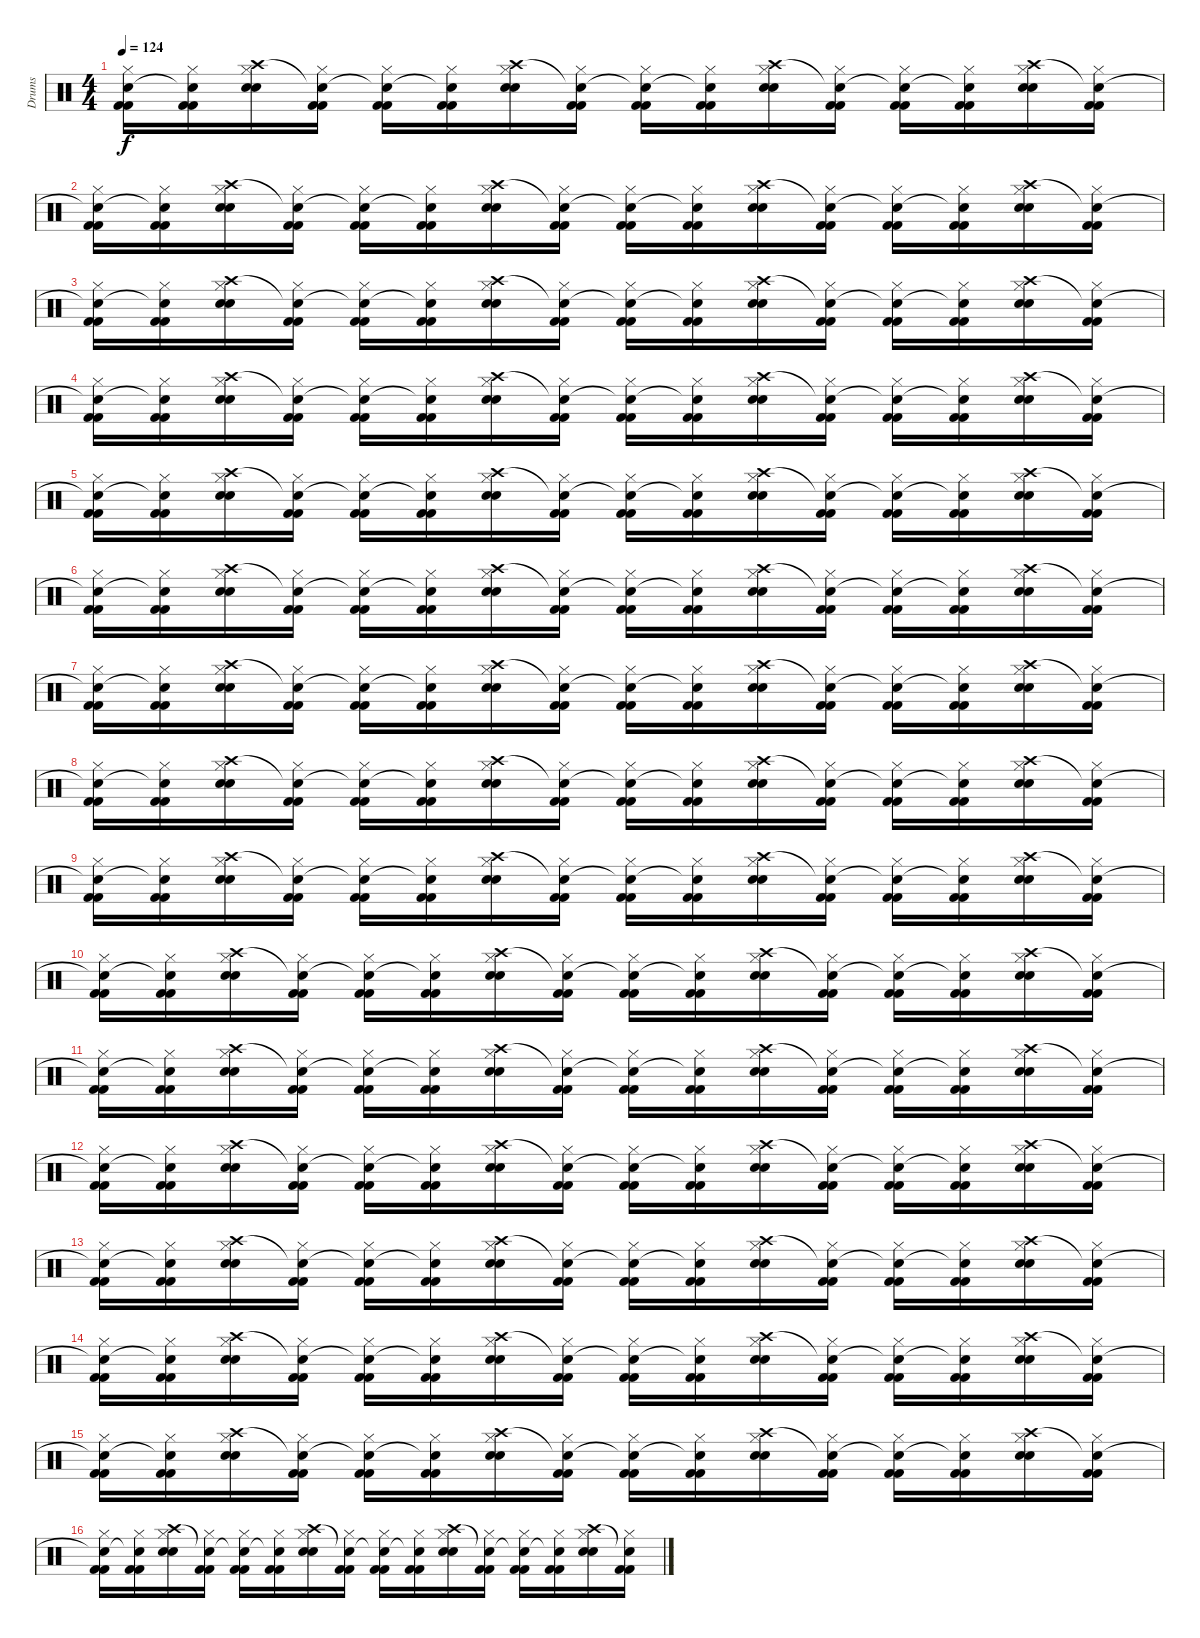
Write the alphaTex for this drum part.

\track ("Drums" "Drums") {instrument percussion}
\staff {score}
\articulation defaults
\ts (4 4)
\tempo 124
\clef neutral
\ks c
("Snare (hit)"{t} "Hi-Hat (closed)" "Kick (hit) 2" "Kick (hit) 2").16{dy f} ("Snare (hit)"{t} "Hi-Hat (closed)" "Kick (hit) 2" "Kick (hit) 2").16 ("Crash high (hit)" "Hi-Hat (closed)" "Snare (hit) 2" "Snare (hit) 2").16 ("Snare (hit)"{t} "Hi-Hat (closed)" "Kick (hit) 2" "Kick (hit) 2").16 ("Snare (hit)"{t} "Hi-Hat (closed)" "Kick (hit) 2" "Kick (hit) 2").16 ("Snare (hit)"{t} "Hi-Hat (closed)" "Kick (hit) 2" "Kick (hit) 2").16 ("Crash high (hit)" "Hi-Hat (closed)" "Snare (hit) 2" "Snare (hit) 2").16 ("Snare (hit)"{t} "Hi-Hat (closed)" "Kick (hit) 2" "Kick (hit) 2").16 ("Snare (hit)"{t} "Hi-Hat (closed)" "Kick (hit) 2" "Kick (hit) 2").16 ("Snare (hit)"{t} "Hi-Hat (closed)" "Kick (hit) 2" "Kick (hit) 2").16 ("Crash high (hit)" "Hi-Hat (closed)" "Snare (hit) 2" "Snare (hit) 2").16 ("Snare (hit)"{t} "Hi-Hat (closed)" "Kick (hit) 2" "Kick (hit) 2").16 ("Snare (hit)"{t} "Hi-Hat (closed)" "Kick (hit) 2" "Kick (hit) 2").16 ("Snare (hit)"{t} "Hi-Hat (closed)" "Kick (hit) 2" "Kick (hit) 2").16 ("Crash high (hit)" "Hi-Hat (closed)" "Snare (hit) 2" "Snare (hit) 2").16 ("Snare (hit)"{t} "Hi-Hat (closed)" "Kick (hit) 2" "Kick (hit) 2").16 |
("Snare (hit)"{t} "Hi-Hat (closed)" "Kick (hit) 2" "Kick (hit) 2").16 ("Snare (hit)"{t} "Hi-Hat (closed)" "Kick (hit) 2" "Kick (hit) 2").16 ("Crash high (hit)" "Hi-Hat (closed)" "Snare (hit) 2" "Snare (hit) 2").16 ("Snare (hit)"{t} "Hi-Hat (closed)" "Kick (hit) 2" "Kick (hit) 2").16 ("Snare (hit)"{t} "Hi-Hat (closed)" "Kick (hit) 2" "Kick (hit) 2").16 ("Snare (hit)"{t} "Hi-Hat (closed)" "Kick (hit) 2" "Kick (hit) 2").16 ("Crash high (hit)" "Hi-Hat (closed)" "Snare (hit) 2" "Snare (hit) 2").16 ("Snare (hit)"{t} "Hi-Hat (closed)" "Kick (hit) 2" "Kick (hit) 2").16 ("Snare (hit)"{t} "Hi-Hat (closed)" "Kick (hit) 2" "Kick (hit) 2").16 ("Snare (hit)"{t} "Hi-Hat (closed)" "Kick (hit) 2" "Kick (hit) 2").16 ("Crash high (hit)" "Hi-Hat (closed)" "Snare (hit) 2" "Snare (hit) 2").16 ("Snare (hit)"{t} "Hi-Hat (closed)" "Kick (hit) 2" "Kick (hit) 2").16 ("Snare (hit)"{t} "Hi-Hat (closed)" "Kick (hit) 2" "Kick (hit) 2").16 ("Snare (hit)"{t} "Hi-Hat (closed)" "Kick (hit) 2" "Kick (hit) 2").16 ("Crash high (hit)" "Hi-Hat (closed)" "Snare (hit) 2" "Snare (hit) 2").16 ("Snare (hit)"{t} "Hi-Hat (closed)" "Kick (hit) 2" "Kick (hit) 2").16 |
("Snare (hit)"{t} "Hi-Hat (closed)" "Kick (hit) 2" "Kick (hit) 2").16 ("Snare (hit)"{t} "Hi-Hat (closed)" "Kick (hit) 2" "Kick (hit) 2").16 ("Crash high (hit)" "Hi-Hat (closed)" "Snare (hit) 2" "Snare (hit) 2").16 ("Snare (hit)"{t} "Hi-Hat (closed)" "Kick (hit) 2" "Kick (hit) 2").16 ("Snare (hit)"{t} "Hi-Hat (closed)" "Kick (hit) 2" "Kick (hit) 2").16 ("Snare (hit)"{t} "Hi-Hat (closed)" "Kick (hit) 2" "Kick (hit) 2").16 ("Crash high (hit)" "Hi-Hat (closed)" "Snare (hit) 2" "Snare (hit) 2").16 ("Snare (hit)"{t} "Hi-Hat (closed)" "Kick (hit) 2" "Kick (hit) 2").16 ("Snare (hit)"{t} "Hi-Hat (closed)" "Kick (hit) 2" "Kick (hit) 2").16 ("Snare (hit)"{t} "Hi-Hat (closed)" "Kick (hit) 2" "Kick (hit) 2").16 ("Crash high (hit)" "Hi-Hat (closed)" "Snare (hit) 2" "Snare (hit) 2").16 ("Snare (hit)"{t} "Hi-Hat (closed)" "Kick (hit) 2" "Kick (hit) 2").16 ("Snare (hit)"{t} "Hi-Hat (closed)" "Kick (hit) 2" "Kick (hit) 2").16 ("Snare (hit)"{t} "Hi-Hat (closed)" "Kick (hit) 2" "Kick (hit) 2").16 ("Crash high (hit)" "Hi-Hat (closed)" "Snare (hit) 2" "Snare (hit) 2").16 ("Snare (hit)"{t} "Hi-Hat (closed)" "Kick (hit) 2" "Kick (hit) 2").16 |
("Snare (hit)"{t} "Hi-Hat (closed)" "Kick (hit) 2" "Kick (hit) 2").16 ("Snare (hit)"{t} "Hi-Hat (closed)" "Kick (hit) 2" "Kick (hit) 2").16 ("Crash high (hit)" "Hi-Hat (closed)" "Snare (hit) 2" "Snare (hit) 2").16 ("Snare (hit)"{t} "Hi-Hat (closed)" "Kick (hit) 2" "Kick (hit) 2").16 ("Snare (hit)"{t} "Hi-Hat (closed)" "Kick (hit) 2" "Kick (hit) 2").16 ("Snare (hit)"{t} "Hi-Hat (closed)" "Kick (hit) 2" "Kick (hit) 2").16 ("Crash high (hit)" "Hi-Hat (closed)" "Snare (hit) 2" "Snare (hit) 2").16 ("Snare (hit)"{t} "Hi-Hat (closed)" "Kick (hit) 2" "Kick (hit) 2").16 ("Snare (hit)"{t} "Hi-Hat (closed)" "Kick (hit) 2" "Kick (hit) 2").16 ("Snare (hit)"{t} "Hi-Hat (closed)" "Kick (hit) 2" "Kick (hit) 2").16 ("Crash high (hit)" "Hi-Hat (closed)" "Snare (hit) 2" "Snare (hit) 2").16 ("Snare (hit)"{t} "Hi-Hat (closed)" "Kick (hit) 2" "Kick (hit) 2").16 ("Snare (hit)"{t} "Hi-Hat (closed)" "Kick (hit) 2" "Kick (hit) 2").16 ("Snare (hit)"{t} "Hi-Hat (closed)" "Kick (hit) 2" "Kick (hit) 2").16 ("Crash high (hit)" "Hi-Hat (closed)" "Snare (hit) 2" "Snare (hit) 2").16 ("Snare (hit)"{t} "Hi-Hat (closed)" "Kick (hit) 2" "Kick (hit) 2").16 |
("Snare (hit)"{t} "Hi-Hat (closed)" "Kick (hit) 2" "Kick (hit) 2").16 ("Snare (hit)"{t} "Hi-Hat (closed)" "Kick (hit) 2" "Kick (hit) 2").16 ("Crash high (hit)" "Hi-Hat (closed)" "Snare (hit) 2" "Snare (hit) 2").16 ("Snare (hit)"{t} "Hi-Hat (closed)" "Kick (hit) 2" "Kick (hit) 2").16 ("Snare (hit)"{t} "Hi-Hat (closed)" "Kick (hit) 2" "Kick (hit) 2").16 ("Snare (hit)"{t} "Hi-Hat (closed)" "Kick (hit) 2" "Kick (hit) 2").16 ("Crash high (hit)" "Hi-Hat (closed)" "Snare (hit) 2" "Snare (hit) 2").16 ("Snare (hit)"{t} "Hi-Hat (closed)" "Kick (hit) 2" "Kick (hit) 2").16 ("Snare (hit)"{t} "Hi-Hat (closed)" "Kick (hit) 2" "Kick (hit) 2").16 ("Snare (hit)"{t} "Hi-Hat (closed)" "Kick (hit) 2" "Kick (hit) 2").16 ("Crash high (hit)" "Hi-Hat (closed)" "Snare (hit) 2" "Snare (hit) 2").16 ("Snare (hit)"{t} "Hi-Hat (closed)" "Kick (hit) 2" "Kick (hit) 2").16 ("Snare (hit)"{t} "Hi-Hat (closed)" "Kick (hit) 2" "Kick (hit) 2").16 ("Snare (hit)"{t} "Hi-Hat (closed)" "Kick (hit) 2" "Kick (hit) 2").16 ("Crash high (hit)" "Hi-Hat (closed)" "Snare (hit) 2" "Snare (hit) 2").16 ("Snare (hit)"{t} "Hi-Hat (closed)" "Kick (hit) 2" "Kick (hit) 2").16 |
("Snare (hit)"{t} "Hi-Hat (closed)" "Kick (hit) 2" "Kick (hit) 2").16 ("Snare (hit)"{t} "Hi-Hat (closed)" "Kick (hit) 2" "Kick (hit) 2").16 ("Crash high (hit)" "Hi-Hat (closed)" "Snare (hit) 2" "Snare (hit) 2").16 ("Snare (hit)"{t} "Hi-Hat (closed)" "Kick (hit) 2" "Kick (hit) 2").16 ("Snare (hit)"{t} "Hi-Hat (closed)" "Kick (hit) 2" "Kick (hit) 2").16 ("Snare (hit)"{t} "Hi-Hat (closed)" "Kick (hit) 2" "Kick (hit) 2").16 ("Crash high (hit)" "Hi-Hat (closed)" "Snare (hit) 2" "Snare (hit) 2").16 ("Snare (hit)"{t} "Hi-Hat (closed)" "Kick (hit) 2" "Kick (hit) 2").16 ("Snare (hit)"{t} "Hi-Hat (closed)" "Kick (hit) 2" "Kick (hit) 2").16 ("Snare (hit)"{t} "Hi-Hat (closed)" "Kick (hit) 2" "Kick (hit) 2").16 ("Crash high (hit)" "Hi-Hat (closed)" "Snare (hit) 2" "Snare (hit) 2").16 ("Snare (hit)"{t} "Hi-Hat (closed)" "Kick (hit) 2" "Kick (hit) 2").16 ("Snare (hit)"{t} "Hi-Hat (closed)" "Kick (hit) 2" "Kick (hit) 2").16 ("Snare (hit)"{t} "Hi-Hat (closed)" "Kick (hit) 2" "Kick (hit) 2").16 ("Crash high (hit)" "Hi-Hat (closed)" "Snare (hit) 2" "Snare (hit) 2").16 ("Snare (hit)"{t} "Hi-Hat (closed)" "Kick (hit) 2" "Kick (hit) 2").16 |
("Snare (hit)"{t} "Hi-Hat (closed)" "Kick (hit) 2" "Kick (hit) 2").16 ("Snare (hit)"{t} "Hi-Hat (closed)" "Kick (hit) 2" "Kick (hit) 2").16 ("Crash high (hit)" "Hi-Hat (closed)" "Snare (hit) 2" "Snare (hit) 2").16 ("Snare (hit)"{t} "Hi-Hat (closed)" "Kick (hit) 2" "Kick (hit) 2").16 ("Snare (hit)"{t} "Hi-Hat (closed)" "Kick (hit) 2" "Kick (hit) 2").16 ("Snare (hit)"{t} "Hi-Hat (closed)" "Kick (hit) 2" "Kick (hit) 2").16 ("Crash high (hit)" "Hi-Hat (closed)" "Snare (hit) 2" "Snare (hit) 2").16 ("Snare (hit)"{t} "Hi-Hat (closed)" "Kick (hit) 2" "Kick (hit) 2").16 ("Snare (hit)"{t} "Hi-Hat (closed)" "Kick (hit) 2" "Kick (hit) 2").16 ("Snare (hit)"{t} "Hi-Hat (closed)" "Kick (hit) 2" "Kick (hit) 2").16 ("Crash high (hit)" "Hi-Hat (closed)" "Snare (hit) 2" "Snare (hit) 2").16 ("Snare (hit)"{t} "Hi-Hat (closed)" "Kick (hit) 2" "Kick (hit) 2").16 ("Snare (hit)"{t} "Hi-Hat (closed)" "Kick (hit) 2" "Kick (hit) 2").16 ("Snare (hit)"{t} "Hi-Hat (closed)" "Kick (hit) 2" "Kick (hit) 2").16 ("Crash high (hit)" "Hi-Hat (closed)" "Snare (hit) 2" "Snare (hit) 2").16 ("Snare (hit)"{t} "Hi-Hat (closed)" "Kick (hit) 2" "Kick (hit) 2").16 |
("Snare (hit)"{t} "Hi-Hat (closed)" "Kick (hit) 2" "Kick (hit) 2").16 ("Snare (hit)"{t} "Hi-Hat (closed)" "Kick (hit) 2" "Kick (hit) 2").16 ("Crash high (hit)" "Hi-Hat (closed)" "Snare (hit) 2" "Snare (hit) 2").16 ("Snare (hit)"{t} "Hi-Hat (closed)" "Kick (hit) 2" "Kick (hit) 2").16 ("Snare (hit)"{t} "Hi-Hat (closed)" "Kick (hit) 2" "Kick (hit) 2").16 ("Snare (hit)"{t} "Hi-Hat (closed)" "Kick (hit) 2" "Kick (hit) 2").16 ("Crash high (hit)" "Hi-Hat (closed)" "Snare (hit) 2" "Snare (hit) 2").16 ("Snare (hit)"{t} "Hi-Hat (closed)" "Kick (hit) 2" "Kick (hit) 2").16 ("Snare (hit)"{t} "Hi-Hat (closed)" "Kick (hit) 2" "Kick (hit) 2").16 ("Snare (hit)"{t} "Hi-Hat (closed)" "Kick (hit) 2" "Kick (hit) 2").16 ("Crash high (hit)" "Hi-Hat (closed)" "Snare (hit) 2" "Snare (hit) 2").16 ("Snare (hit)"{t} "Hi-Hat (closed)" "Kick (hit) 2" "Kick (hit) 2").16 ("Snare (hit)"{t} "Hi-Hat (closed)" "Kick (hit) 2" "Kick (hit) 2").16 ("Snare (hit)"{t} "Hi-Hat (closed)" "Kick (hit) 2" "Kick (hit) 2").16 ("Crash high (hit)" "Hi-Hat (closed)" "Snare (hit) 2" "Snare (hit) 2").16 ("Snare (hit)"{t} "Hi-Hat (closed)" "Kick (hit) 2" "Kick (hit) 2").16 |
("Snare (hit)"{t} "Hi-Hat (closed)" "Kick (hit) 2" "Kick (hit) 2").16 ("Snare (hit)"{t} "Hi-Hat (closed)" "Kick (hit) 2" "Kick (hit) 2").16 ("Crash high (hit)" "Hi-Hat (closed)" "Snare (hit) 2" "Snare (hit) 2").16 ("Snare (hit)"{t} "Hi-Hat (closed)" "Kick (hit) 2" "Kick (hit) 2").16 ("Snare (hit)"{t} "Hi-Hat (closed)" "Kick (hit) 2" "Kick (hit) 2").16 ("Snare (hit)"{t} "Hi-Hat (closed)" "Kick (hit) 2" "Kick (hit) 2").16 ("Crash high (hit)" "Hi-Hat (closed)" "Snare (hit) 2" "Snare (hit) 2").16 ("Snare (hit)"{t} "Hi-Hat (closed)" "Kick (hit) 2" "Kick (hit) 2").16 ("Snare (hit)"{t} "Hi-Hat (closed)" "Kick (hit) 2" "Kick (hit) 2").16 ("Snare (hit)"{t} "Hi-Hat (closed)" "Kick (hit) 2" "Kick (hit) 2").16 ("Crash high (hit)" "Hi-Hat (closed)" "Snare (hit) 2" "Snare (hit) 2").16 ("Snare (hit)"{t} "Hi-Hat (closed)" "Kick (hit) 2" "Kick (hit) 2").16 ("Snare (hit)"{t} "Hi-Hat (closed)" "Kick (hit) 2" "Kick (hit) 2").16 ("Snare (hit)"{t} "Hi-Hat (closed)" "Kick (hit) 2" "Kick (hit) 2").16 ("Crash high (hit)" "Hi-Hat (closed)" "Snare (hit) 2" "Snare (hit) 2").16 ("Snare (hit)"{t} "Hi-Hat (closed)" "Kick (hit) 2" "Kick (hit) 2").16 |
("Snare (hit)"{t} "Hi-Hat (closed)" "Kick (hit) 2" "Kick (hit) 2").16 ("Snare (hit)"{t} "Hi-Hat (closed)" "Kick (hit) 2" "Kick (hit) 2").16 ("Crash high (hit)" "Hi-Hat (closed)" "Snare (hit) 2" "Snare (hit) 2").16 ("Snare (hit)"{t} "Hi-Hat (closed)" "Kick (hit) 2" "Kick (hit) 2").16 ("Snare (hit)"{t} "Hi-Hat (closed)" "Kick (hit) 2" "Kick (hit) 2").16 ("Snare (hit)"{t} "Hi-Hat (closed)" "Kick (hit) 2" "Kick (hit) 2").16 ("Crash high (hit)" "Hi-Hat (closed)" "Snare (hit) 2" "Snare (hit) 2").16 ("Snare (hit)"{t} "Hi-Hat (closed)" "Kick (hit) 2" "Kick (hit) 2").16 ("Snare (hit)"{t} "Hi-Hat (closed)" "Kick (hit) 2" "Kick (hit) 2").16 ("Snare (hit)"{t} "Hi-Hat (closed)" "Kick (hit) 2" "Kick (hit) 2").16 ("Crash high (hit)" "Hi-Hat (closed)" "Snare (hit) 2" "Snare (hit) 2").16 ("Snare (hit)"{t} "Hi-Hat (closed)" "Kick (hit) 2" "Kick (hit) 2").16 ("Snare (hit)"{t} "Hi-Hat (closed)" "Kick (hit) 2" "Kick (hit) 2").16 ("Snare (hit)"{t} "Hi-Hat (closed)" "Kick (hit) 2" "Kick (hit) 2").16 ("Crash high (hit)" "Hi-Hat (closed)" "Snare (hit) 2" "Snare (hit) 2").16 ("Snare (hit)"{t} "Hi-Hat (closed)" "Kick (hit) 2" "Kick (hit) 2").16 |
("Snare (hit)"{t} "Hi-Hat (closed)" "Kick (hit) 2" "Kick (hit) 2").16 ("Snare (hit)"{t} "Hi-Hat (closed)" "Kick (hit) 2" "Kick (hit) 2").16 ("Crash high (hit)" "Hi-Hat (closed)" "Snare (hit) 2" "Snare (hit) 2").16 ("Snare (hit)"{t} "Hi-Hat (closed)" "Kick (hit) 2" "Kick (hit) 2").16 ("Snare (hit)"{t} "Hi-Hat (closed)" "Kick (hit) 2" "Kick (hit) 2").16 ("Snare (hit)"{t} "Hi-Hat (closed)" "Kick (hit) 2" "Kick (hit) 2").16 ("Crash high (hit)" "Hi-Hat (closed)" "Snare (hit) 2" "Snare (hit) 2").16 ("Snare (hit)"{t} "Hi-Hat (closed)" "Kick (hit) 2" "Kick (hit) 2").16 ("Snare (hit)"{t} "Hi-Hat (closed)" "Kick (hit) 2" "Kick (hit) 2").16 ("Snare (hit)"{t} "Hi-Hat (closed)" "Kick (hit) 2" "Kick (hit) 2").16 ("Crash high (hit)" "Hi-Hat (closed)" "Snare (hit) 2" "Snare (hit) 2").16 ("Snare (hit)"{t} "Hi-Hat (closed)" "Kick (hit) 2" "Kick (hit) 2").16 ("Snare (hit)"{t} "Hi-Hat (closed)" "Kick (hit) 2" "Kick (hit) 2").16 ("Snare (hit)"{t} "Hi-Hat (closed)" "Kick (hit) 2" "Kick (hit) 2").16 ("Crash high (hit)" "Hi-Hat (closed)" "Snare (hit) 2" "Snare (hit) 2").16 ("Snare (hit)"{t} "Hi-Hat (closed)" "Kick (hit) 2" "Kick (hit) 2").16 |
("Snare (hit)"{t} "Hi-Hat (closed)" "Kick (hit) 2" "Kick (hit) 2").16 ("Snare (hit)"{t} "Hi-Hat (closed)" "Kick (hit) 2" "Kick (hit) 2").16 ("Crash high (hit)" "Hi-Hat (closed)" "Snare (hit) 2" "Snare (hit) 2").16 ("Snare (hit)"{t} "Hi-Hat (closed)" "Kick (hit) 2" "Kick (hit) 2").16 ("Snare (hit)"{t} "Hi-Hat (closed)" "Kick (hit) 2" "Kick (hit) 2").16 ("Snare (hit)"{t} "Hi-Hat (closed)" "Kick (hit) 2" "Kick (hit) 2").16 ("Crash high (hit)" "Hi-Hat (closed)" "Snare (hit) 2" "Snare (hit) 2").16 ("Snare (hit)"{t} "Hi-Hat (closed)" "Kick (hit) 2" "Kick (hit) 2").16 ("Snare (hit)"{t} "Hi-Hat (closed)" "Kick (hit) 2" "Kick (hit) 2").16 ("Snare (hit)"{t} "Hi-Hat (closed)" "Kick (hit) 2" "Kick (hit) 2").16 ("Crash high (hit)" "Hi-Hat (closed)" "Snare (hit) 2" "Snare (hit) 2").16 ("Snare (hit)"{t} "Hi-Hat (closed)" "Kick (hit) 2" "Kick (hit) 2").16 ("Snare (hit)"{t} "Hi-Hat (closed)" "Kick (hit) 2" "Kick (hit) 2").16 ("Snare (hit)"{t} "Hi-Hat (closed)" "Kick (hit) 2" "Kick (hit) 2").16 ("Crash high (hit)" "Hi-Hat (closed)" "Snare (hit) 2" "Snare (hit) 2").16 ("Snare (hit)"{t} "Hi-Hat (closed)" "Kick (hit) 2" "Kick (hit) 2").16 |
("Snare (hit)"{t} "Hi-Hat (closed)" "Kick (hit) 2" "Kick (hit) 2").16 ("Snare (hit)"{t} "Hi-Hat (closed)" "Kick (hit) 2" "Kick (hit) 2").16 ("Crash high (hit)" "Hi-Hat (closed)" "Snare (hit) 2" "Snare (hit) 2").16 ("Snare (hit)"{t} "Hi-Hat (closed)" "Kick (hit) 2" "Kick (hit) 2").16 ("Snare (hit)"{t} "Hi-Hat (closed)" "Kick (hit) 2" "Kick (hit) 2").16 ("Snare (hit)"{t} "Hi-Hat (closed)" "Kick (hit) 2" "Kick (hit) 2").16 ("Crash high (hit)" "Hi-Hat (closed)" "Snare (hit) 2" "Snare (hit) 2").16 ("Snare (hit)"{t} "Hi-Hat (closed)" "Kick (hit) 2" "Kick (hit) 2").16 ("Snare (hit)"{t} "Hi-Hat (closed)" "Kick (hit) 2" "Kick (hit) 2").16 ("Snare (hit)"{t} "Hi-Hat (closed)" "Kick (hit) 2" "Kick (hit) 2").16 ("Crash high (hit)" "Hi-Hat (closed)" "Snare (hit) 2" "Snare (hit) 2").16 ("Snare (hit)"{t} "Hi-Hat (closed)" "Kick (hit) 2" "Kick (hit) 2").16 ("Snare (hit)"{t} "Hi-Hat (closed)" "Kick (hit) 2" "Kick (hit) 2").16 ("Snare (hit)"{t} "Hi-Hat (closed)" "Kick (hit) 2" "Kick (hit) 2").16 ("Crash high (hit)" "Hi-Hat (closed)" "Snare (hit) 2" "Snare (hit) 2").16 ("Snare (hit)"{t} "Hi-Hat (closed)" "Kick (hit) 2" "Kick (hit) 2").16 |
("Snare (hit)"{t} "Hi-Hat (closed)" "Kick (hit) 2" "Kick (hit) 2").16 ("Snare (hit)"{t} "Hi-Hat (closed)" "Kick (hit) 2" "Kick (hit) 2").16 ("Crash high (hit)" "Hi-Hat (closed)" "Snare (hit) 2" "Snare (hit) 2").16 ("Snare (hit)"{t} "Hi-Hat (closed)" "Kick (hit) 2" "Kick (hit) 2").16 ("Snare (hit)"{t} "Hi-Hat (closed)" "Kick (hit) 2" "Kick (hit) 2").16 ("Snare (hit)"{t} "Hi-Hat (closed)" "Kick (hit) 2" "Kick (hit) 2").16 ("Crash high (hit)" "Hi-Hat (closed)" "Snare (hit) 2" "Snare (hit) 2").16 ("Snare (hit)"{t} "Hi-Hat (closed)" "Kick (hit) 2" "Kick (hit) 2").16 ("Snare (hit)"{t} "Hi-Hat (closed)" "Kick (hit) 2" "Kick (hit) 2").16 ("Snare (hit)"{t} "Hi-Hat (closed)" "Kick (hit) 2" "Kick (hit) 2").16 ("Crash high (hit)" "Hi-Hat (closed)" "Snare (hit) 2" "Snare (hit) 2").16 ("Snare (hit)"{t} "Hi-Hat (closed)" "Kick (hit) 2" "Kick (hit) 2").16 ("Snare (hit)"{t} "Hi-Hat (closed)" "Kick (hit) 2" "Kick (hit) 2").16 ("Snare (hit)"{t} "Hi-Hat (closed)" "Kick (hit) 2" "Kick (hit) 2").16 ("Crash high (hit)" "Hi-Hat (closed)" "Snare (hit) 2" "Snare (hit) 2").16 ("Snare (hit)"{t} "Hi-Hat (closed)" "Kick (hit) 2" "Kick (hit) 2").16 |
("Snare (hit)"{t} "Hi-Hat (closed)" "Kick (hit) 2" "Kick (hit) 2").16 ("Snare (hit)"{t} "Hi-Hat (closed)" "Kick (hit) 2" "Kick (hit) 2").16 ("Crash high (hit)" "Hi-Hat (closed)" "Snare (hit) 2" "Snare (hit) 2").16 ("Snare (hit)"{t} "Hi-Hat (closed)" "Kick (hit) 2" "Kick (hit) 2").16 ("Snare (hit)"{t} "Hi-Hat (closed)" "Kick (hit) 2" "Kick (hit) 2").16 ("Snare (hit)"{t} "Hi-Hat (closed)" "Kick (hit) 2" "Kick (hit) 2").16 ("Crash high (hit)" "Hi-Hat (closed)" "Snare (hit) 2" "Snare (hit) 2").16 ("Snare (hit)"{t} "Hi-Hat (closed)" "Kick (hit) 2" "Kick (hit) 2").16 ("Snare (hit)"{t} "Hi-Hat (closed)" "Kick (hit) 2" "Kick (hit) 2").16 ("Snare (hit)"{t} "Hi-Hat (closed)" "Kick (hit) 2" "Kick (hit) 2").16 ("Crash high (hit)" "Hi-Hat (closed)" "Snare (hit) 2" "Snare (hit) 2").16 ("Snare (hit)"{t} "Hi-Hat (closed)" "Kick (hit) 2" "Kick (hit) 2").16 ("Snare (hit)"{t} "Hi-Hat (closed)" "Kick (hit) 2" "Kick (hit) 2").16 ("Snare (hit)"{t} "Hi-Hat (closed)" "Kick (hit) 2" "Kick (hit) 2").16 ("Crash high (hit)" "Hi-Hat (closed)" "Snare (hit) 2" "Snare (hit) 2").16 ("Snare (hit)"{t} "Hi-Hat (closed)" "Kick (hit) 2" "Kick (hit) 2").16 |
("Snare (hit)"{t} "Hi-Hat (closed)" "Kick (hit) 2" "Kick (hit) 2").16 ("Snare (hit)"{t} "Hi-Hat (closed)" "Kick (hit) 2" "Kick (hit) 2").16 ("Crash high (hit)" "Hi-Hat (closed)" "Snare (hit) 2" "Snare (hit) 2").16 ("Snare (hit)"{t} "Hi-Hat (closed)" "Kick (hit) 2" "Kick (hit) 2").16 ("Snare (hit)"{t} "Hi-Hat (closed)" "Kick (hit) 2" "Kick (hit) 2").16 ("Snare (hit)"{t} "Hi-Hat (closed)" "Kick (hit) 2" "Kick (hit) 2").16 ("Crash high (hit)" "Hi-Hat (closed)" "Snare (hit) 2" "Snare (hit) 2").16 ("Snare (hit)"{t} "Hi-Hat (closed)" "Kick (hit) 2" "Kick (hit) 2").16 ("Snare (hit)"{t} "Hi-Hat (closed)" "Kick (hit) 2" "Kick (hit) 2").16 ("Snare (hit)"{t} "Hi-Hat (closed)" "Kick (hit) 2" "Kick (hit) 2").16 ("Crash high (hit)" "Hi-Hat (closed)" "Snare (hit) 2" "Snare (hit) 2").16 ("Snare (hit)"{t} "Hi-Hat (closed)" "Kick (hit) 2" "Kick (hit) 2").16 ("Snare (hit)"{t} "Hi-Hat (closed)" "Kick (hit) 2" "Kick (hit) 2").16 ("Snare (hit)"{t} "Hi-Hat (closed)" "Kick (hit) 2" "Kick (hit) 2").16 ("Crash high (hit)" "Hi-Hat (closed)" "Snare (hit) 2" "Snare (hit) 2").16 ("Snare (hit)"{t} "Hi-Hat (closed)" "Kick (hit) 2" "Kick (hit) 2").16
